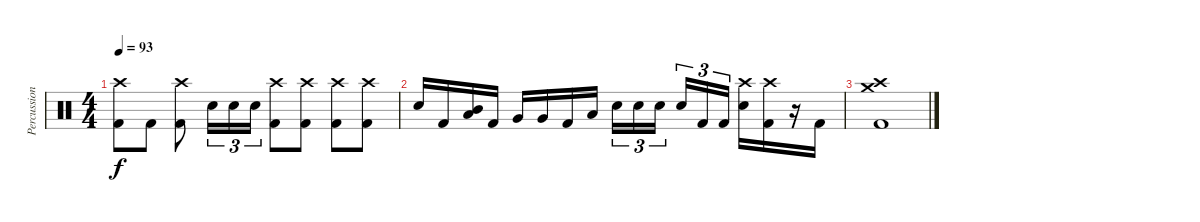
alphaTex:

\track ("Percussion" "Percussion") {instrument percussion}
\staff {score}
\articulation defaults
\ts (4 4)
\tempo 93
\clef neutral
\ks c
("Crash high (hit)" "Kick (hit) 2").8{dy f} "Kick (hit) 2".8 ("Crash high (hit)" "Kick (hit) 2").8 "Snare (hit) 2".16{tu (3 2)} "Snare (hit) 2".16{tu (3 2)} "Snare (hit) 2".16{tu (3 2)} ("Crash high (hit)" "Kick (hit) 2").8 ("Crash high (hit)" "Kick (hit) 2").8 ("Crash high (hit)" "Kick (hit) 2").8 ("Crash high (hit)" "Kick (hit) 2").8 |
"Snare (hit) 2".16 "Kick (hit) 2".16 ("Mid Tom (hit)" "Low Tom (hit)").16 "Kick (hit) 2".16 "Very Low Tom (hit)".16 "Very Low Tom (hit)".16 "Kick (hit) 2".16 "Low Floor Tom (hit)".16 "Snare (hit) 2".16{tu (3 2)} "Snare (hit) 2".16{tu (3 2)} "Snare (hit) 2".16{tu (3 2) beam splitsecondary} "Snare (hit) 2".16{tu (3 2)} "Kick (hit) 2".16{tu (3 2)} "Kick (hit) 2".16{tu (3 2)} ("Crash high (hit)" "Snare (hit) 2").16 ("Crash high (hit)" "Kick (hit) 2").16 r.16 "Kick (hit) 2".16 |
("Crash high (hit)" "Crash medium (hit)" "Kick (hit) 2").1
